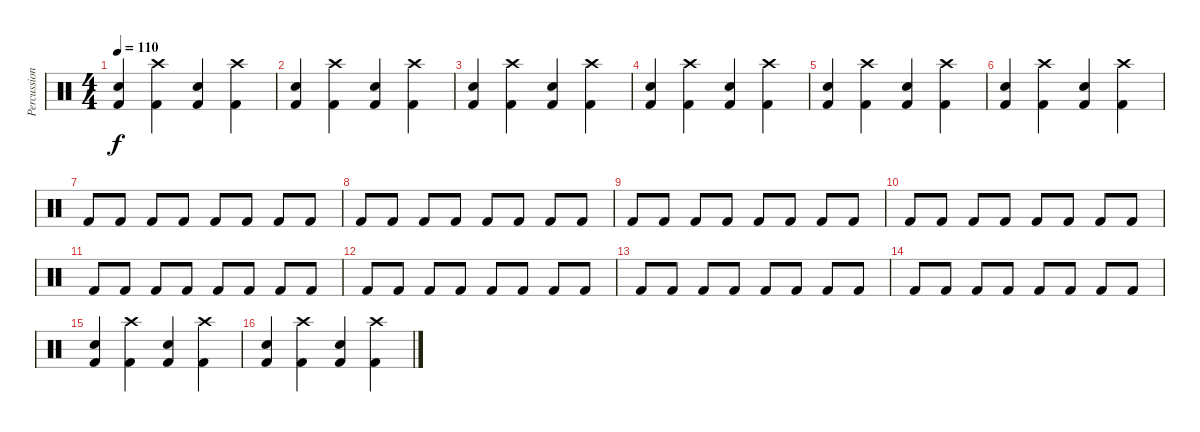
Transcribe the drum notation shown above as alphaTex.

\track ("Percussion" "Percussion") {instrument percussion}
\staff {score}
\articulation defaults
\ts (4 4)
\tempo 110
\clef neutral
\ks c
("Snare (hit) 2" "Kick (hit) 2").4{dy f} ("Crash high (hit)" "Kick (hit) 2").4 ("Snare (hit) 2" "Kick (hit) 2").4 ("Crash high (hit)" "Kick (hit) 2").4 |
("Snare (hit) 2" "Kick (hit) 2").4 ("Crash high (hit)" "Kick (hit) 2").4 ("Snare (hit) 2" "Kick (hit) 2").4 ("Crash high (hit)" "Kick (hit) 2").4 |
("Snare (hit) 2" "Kick (hit) 2").4 ("Crash high (hit)" "Kick (hit) 2").4 ("Snare (hit) 2" "Kick (hit) 2").4 ("Crash high (hit)" "Kick (hit) 2").4 |
("Snare (hit) 2" "Kick (hit) 2").4 ("Crash high (hit)" "Kick (hit) 2").4 ("Snare (hit) 2" "Kick (hit) 2").4 ("Crash high (hit)" "Kick (hit) 2").4 |
("Snare (hit) 2" "Kick (hit) 2").4 ("Crash high (hit)" "Kick (hit) 2").4 ("Snare (hit) 2" "Kick (hit) 2").4 ("Crash high (hit)" "Kick (hit) 2").4 |
("Snare (hit) 2" "Kick (hit) 2").4 ("Crash high (hit)" "Kick (hit) 2").4 ("Snare (hit) 2" "Kick (hit) 2").4 ("Crash high (hit)" "Kick (hit) 2").4 |
"Kick (hit) 2".8 "Kick (hit) 2".8 "Kick (hit) 2".8 "Kick (hit) 2".8 "Kick (hit) 2".8 "Kick (hit) 2".8 "Kick (hit) 2".8 "Kick (hit) 2".8 |
"Kick (hit) 2".8 "Kick (hit) 2".8 "Kick (hit) 2".8 "Kick (hit) 2".8 "Kick (hit) 2".8 "Kick (hit) 2".8 "Kick (hit) 2".8 "Kick (hit) 2".8 |
"Kick (hit) 2".8 "Kick (hit) 2".8 "Kick (hit) 2".8 "Kick (hit) 2".8 "Kick (hit) 2".8 "Kick (hit) 2".8 "Kick (hit) 2".8 "Kick (hit) 2".8 |
"Kick (hit) 2".8 "Kick (hit) 2".8 "Kick (hit) 2".8 "Kick (hit) 2".8 "Kick (hit) 2".8 "Kick (hit) 2".8 "Kick (hit) 2".8 "Kick (hit) 2".8 |
"Kick (hit) 2".8 "Kick (hit) 2".8 "Kick (hit) 2".8 "Kick (hit) 2".8 "Kick (hit) 2".8 "Kick (hit) 2".8 "Kick (hit) 2".8 "Kick (hit) 2".8 |
"Kick (hit) 2".8 "Kick (hit) 2".8 "Kick (hit) 2".8 "Kick (hit) 2".8 "Kick (hit) 2".8 "Kick (hit) 2".8 "Kick (hit) 2".8 "Kick (hit) 2".8 |
"Kick (hit) 2".8 "Kick (hit) 2".8 "Kick (hit) 2".8 "Kick (hit) 2".8 "Kick (hit) 2".8 "Kick (hit) 2".8 "Kick (hit) 2".8 "Kick (hit) 2".8 |
"Kick (hit) 2".8 "Kick (hit) 2".8 "Kick (hit) 2".8 "Kick (hit) 2".8 "Kick (hit) 2".8 "Kick (hit) 2".8 "Kick (hit) 2".8 "Kick (hit) 2".8 |
("Snare (hit) 2" "Kick (hit) 2").4 ("Crash high (hit)" "Kick (hit) 2").4 ("Snare (hit) 2" "Kick (hit) 2").4 ("Crash high (hit)" "Kick (hit) 2").4 |
("Snare (hit) 2" "Kick (hit) 2").4 ("Crash high (hit)" "Kick (hit) 2").4 ("Snare (hit) 2" "Kick (hit) 2").4 ("Crash high (hit)" "Kick (hit) 2").4
